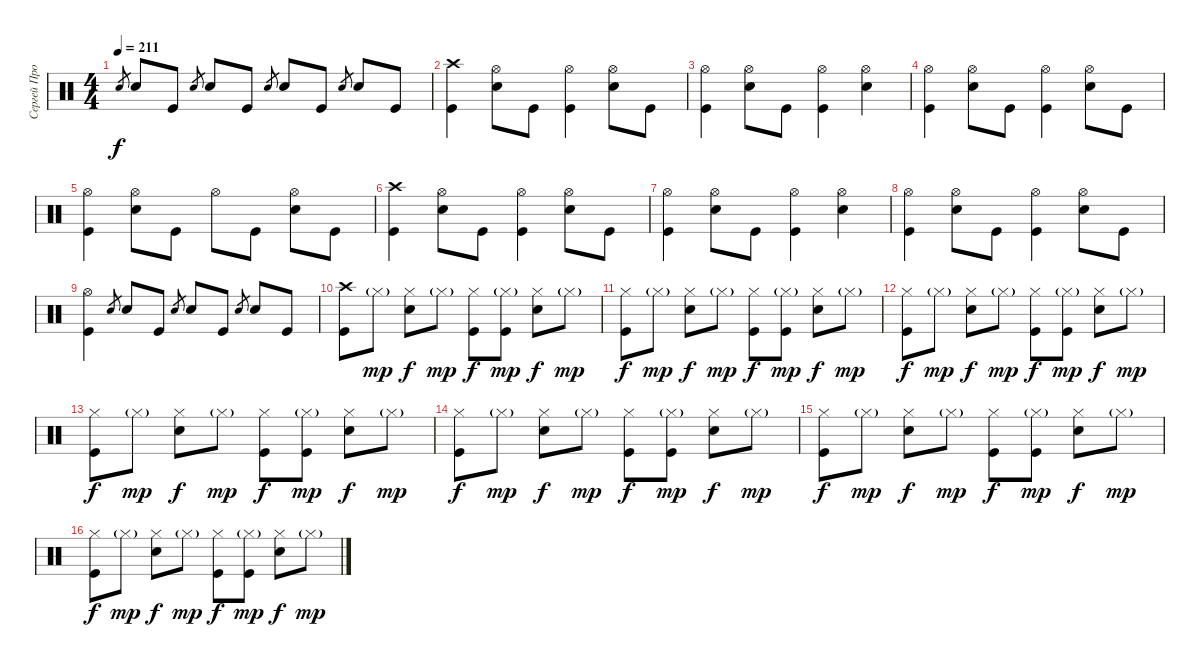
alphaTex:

\track ("Сергей Прокофьев" "Сергей Про") {instrument percussion}
\staff {score}
\articulation defaults
\ts (4 4)
\tempo 211
\clef neutral
\ks c "Electric Snare (hit)".8{gr dy f} "Electric Snare (hit)".8 "Kick (hit)".8 "Electric Snare (hit)".8{gr} "Electric Snare (hit)".8 "Kick (hit)".8 "Electric Snare (hit)".8{gr} "Electric Snare (hit)".8 "Kick (hit)".8 "Electric Snare (hit)".8{gr} "Electric Snare (hit)".8 "Kick (hit)".8
|
("Crash high (hit)" "Kick (hit)").4 ("Hi-Hat (open)" "Electric Snare (hit)").8 "Kick (hit)".8 ("Hi-Hat (open)" "Kick (hit)").4 ("Hi-Hat (open)" "Electric Snare (hit)").8 "Kick (hit)".8 |
("Hi-Hat (open)" "Kick (hit)").4 ("Hi-Hat (open)" "Electric Snare (hit)").8 "Kick (hit)".8 ("Hi-Hat (open)" "Kick (hit)").4 ("Hi-Hat (open)" "Electric Snare (hit)").4 |
("Hi-Hat (open)" "Kick (hit)").4 ("Hi-Hat (open)" "Electric Snare (hit)").8 "Kick (hit)".8 ("Hi-Hat (open)" "Kick (hit)").4 ("Hi-Hat (open)" "Electric Snare (hit)").8 "Kick (hit)".8 |
("Hi-Hat (open)" "Kick (hit)").4 ("Hi-Hat (open)" "Electric Snare (hit)").8 "Kick (hit)".8 "Hi-Hat (open)".8 "Kick (hit)".8 ("Hi-Hat (open)" "Electric Snare (hit)").8 "Kick (hit)".8 |
("Crash high (hit)" "Kick (hit)").4 ("Hi-Hat (open)" "Electric Snare (hit)").8 "Kick (hit)".8 ("Hi-Hat (open)" "Kick (hit)").4 ("Hi-Hat (open)" "Electric Snare (hit)").8 "Kick (hit)".8 |
("Hi-Hat (open)" "Kick (hit)").4 ("Hi-Hat (open)" "Electric Snare (hit)").8 "Kick (hit)".8 ("Hi-Hat (open)" "Kick (hit)").4 ("Hi-Hat (open)" "Electric Snare (hit)").4 |
("Hi-Hat (open)" "Kick (hit)").4 ("Hi-Hat (open)" "Electric Snare (hit)").8 "Kick (hit)".8 ("Hi-Hat (open)" "Kick (hit)").4 ("Hi-Hat (open)" "Electric Snare (hit)").8 "Kick (hit)".8 |
("Hi-Hat (open)" "Kick (hit)").4 "Electric Snare (hit)".8{gr} "Electric Snare (hit)".8 "Kick (hit)".8 "Electric Snare (hit)".8{gr} "Electric Snare (hit)".8 "Kick (hit)".8 "Electric Snare (hit)".8{gr} "Electric Snare (hit)".8 "Kick (hit)".8 |
("Crash high (hit)" "Kick (hit)").8 "Hi-Hat (closed)"{g}.8{dy mp} ("Hi-Hat (closed)" "Electric Snare (hit)").8{dy f} "Hi-Hat (closed)"{g}.8{dy mp} ("Hi-Hat (closed)" "Kick (hit)").8{dy f} ("Hi-Hat (closed)"{g} "Kick (hit)").8{dy mp} ("Hi-Hat (closed)" "Electric Snare (hit)").8{dy f} "Hi-Hat (closed)"{g}.8{dy mp} |
("Hi-Hat (closed)" "Kick (hit)").8{dy f} "Hi-Hat (closed)"{g}.8{dy mp} ("Hi-Hat (closed)" "Electric Snare (hit)").8{dy f} "Hi-Hat (closed)"{g}.8{dy mp} ("Hi-Hat (closed)" "Kick (hit)").8{dy f} ("Hi-Hat (closed)"{g} "Kick (hit)").8{dy mp} ("Hi-Hat (closed)" "Electric Snare (hit)").8{dy f} "Hi-Hat (closed)"{g}.8{dy mp} |
("Hi-Hat (closed)" "Kick (hit)").8{dy f} "Hi-Hat (closed)"{g}.8{dy mp} ("Hi-Hat (closed)" "Electric Snare (hit)").8{dy f} "Hi-Hat (closed)"{g}.8{dy mp} ("Hi-Hat (closed)" "Kick (hit)").8{dy f} ("Hi-Hat (closed)"{g} "Kick (hit)").8{dy mp} ("Hi-Hat (closed)" "Electric Snare (hit)").8{dy f} "Hi-Hat (closed)"{g}.8{dy mp} |
("Hi-Hat (closed)" "Kick (hit)").8{dy f} "Hi-Hat (closed)"{g}.8{dy mp} ("Hi-Hat (closed)" "Electric Snare (hit)").8{dy f} "Hi-Hat (closed)"{g}.8{dy mp} ("Hi-Hat (closed)" "Kick (hit)").8{dy f} ("Hi-Hat (closed)"{g} "Kick (hit)").8{dy mp} ("Hi-Hat (closed)" "Electric Snare (hit)").8{dy f} "Hi-Hat (closed)"{g}.8{dy mp} |
("Hi-Hat (closed)" "Kick (hit)").8{dy f} "Hi-Hat (closed)"{g}.8{dy mp} ("Hi-Hat (closed)" "Electric Snare (hit)").8{dy f} "Hi-Hat (closed)"{g}.8{dy mp} ("Hi-Hat (closed)" "Kick (hit)").8{dy f} ("Hi-Hat (closed)"{g} "Kick (hit)").8{dy mp} ("Hi-Hat (closed)" "Electric Snare (hit)").8{dy f} "Hi-Hat (closed)"{g}.8{dy mp} |
("Hi-Hat (closed)" "Kick (hit)").8{dy f} "Hi-Hat (closed)"{g}.8{dy mp} ("Hi-Hat (closed)" "Electric Snare (hit)").8{dy f} "Hi-Hat (closed)"{g}.8{dy mp} ("Hi-Hat (closed)" "Kick (hit)").8{dy f} ("Hi-Hat (closed)"{g} "Kick (hit)").8{dy mp} ("Hi-Hat (closed)" "Electric Snare (hit)").8{dy f} "Hi-Hat (closed)"{g}.8{dy mp} |
("Hi-Hat (closed)" "Kick (hit)").8{dy f} "Hi-Hat (closed)"{g}.8{dy mp} ("Hi-Hat (closed)" "Electric Snare (hit)").8{dy f} "Hi-Hat (closed)"{g}.8{dy mp} ("Hi-Hat (closed)" "Kick (hit)").8{dy f} ("Hi-Hat (closed)"{g} "Kick (hit)").8{dy mp} ("Hi-Hat (closed)" "Electric Snare (hit)").8{dy f} "Hi-Hat (closed)"{g}.8{dy mp}
